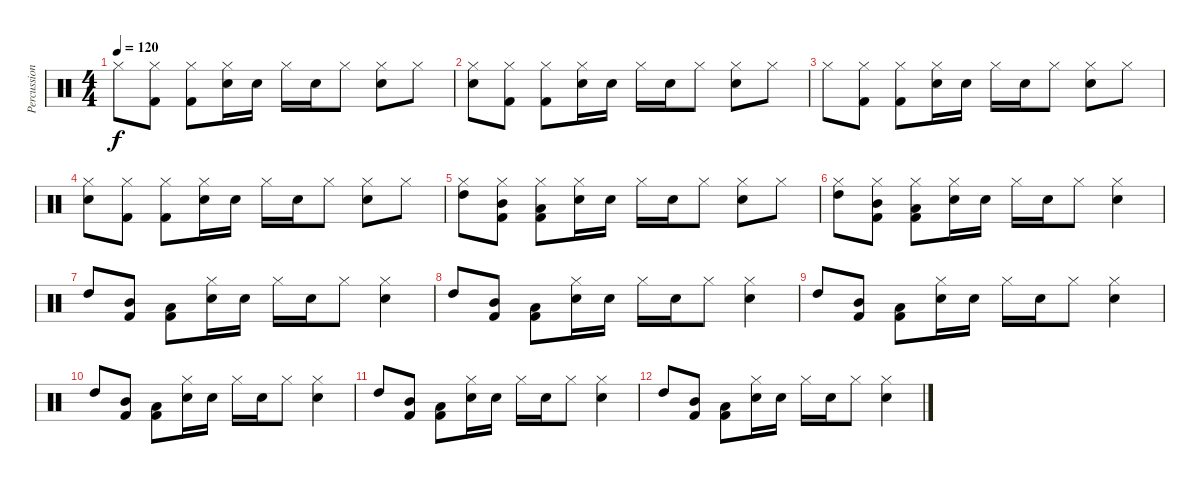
\track ("Percussion" "Percussion") {instrument percussion}
\staff {score}
\articulation defaults
\ts (4 4)
\tempo 120
\clef neutral
\ks c "Hi-Hat (closed)".8{dy f}
("Kick (hit) 2" "Hi-Hat (closed)").8 ("Kick (hit) 2" "Hi-Hat (closed)").8 ("Electric Snare (hit)" "Hi-Hat (closed)").16 "Electric Snare (hit)".16 "Hi-Hat (closed)".16 "Electric Snare (hit)".16 "Hi-Hat (closed)".8 ("Electric Snare (hit)" "Hi-Hat (closed)").8 "Hi-Hat (closed)".8 |
("Electric Snare (hit)" "Hi-Hat (closed)").8 ("Kick (hit) 2" "Hi-Hat (closed)").8 ("Kick (hit) 2" "Hi-Hat (closed)").8 ("Electric Snare (hit)" "Hi-Hat (closed)").16 "Electric Snare (hit)".16 "Hi-Hat (closed)".16 "Electric Snare (hit)".16 "Hi-Hat (closed)".8 ("Electric Snare (hit)" "Hi-Hat (closed)").8 "Hi-Hat (closed)".8 |
"Hi-Hat (closed)".8 ("Kick (hit) 2" "Hi-Hat (closed)").8 ("Kick (hit) 2" "Hi-Hat (closed)").8 ("Electric Snare (hit)" "Hi-Hat (closed)").16 "Electric Snare (hit)".16 "Hi-Hat (closed)".16 "Electric Snare (hit)".16 "Hi-Hat (closed)".8 ("Electric Snare (hit)" "Hi-Hat (closed)").8 "Hi-Hat (closed)".8 |
("Electric Snare (hit)" "Hi-Hat (closed)").8 ("Kick (hit) 2" "Hi-Hat (closed)").8 ("Kick (hit) 2" "Hi-Hat (closed)").8 ("Electric Snare (hit)" "Hi-Hat (closed)").16 "Electric Snare (hit)".16 "Hi-Hat (closed)".16 "Electric Snare (hit)".16 "Hi-Hat (closed)".8 ("Electric Snare (hit)" "Hi-Hat (closed)").8 "Hi-Hat (closed)".8 |
("High Tom (hit)" "Hi-Hat (closed)").8 ("Mid Tom (hit)" "Kick (hit) 2" "Hi-Hat (closed)").8 ("Low Tom (hit)" "Kick (hit) 2" "Hi-Hat (closed)").8 ("Electric Snare (hit)" "Hi-Hat (closed)").16 "Electric Snare (hit)".16 "Hi-Hat (closed)".16 "Electric Snare (hit)".16 "Hi-Hat (closed)".8 ("Electric Snare (hit)" "Hi-Hat (closed)").8 "Hi-Hat (closed)".8 |
("High Tom (hit)" "Hi-Hat (closed)").8 ("Mid Tom (hit)" "Kick (hit) 2" "Hi-Hat (closed)").8 ("Low Tom (hit)" "Kick (hit) 2" "Hi-Hat (closed)").8 ("Electric Snare (hit)" "Hi-Hat (closed)").16 "Electric Snare (hit)".16 "Hi-Hat (closed)".16 "Electric Snare (hit)".16 "Hi-Hat (closed)".8 ("Electric Snare (hit)" "Hi-Hat (closed)").4 |
"High Tom (hit)".8 ("Mid Tom (hit)" "Kick (hit) 2").8 ("Low Tom (hit)" "Kick (hit) 2").8 ("Electric Snare (hit)" "Hi-Hat (closed)").16 "Electric Snare (hit)".16 "Hi-Hat (closed)".16 "Electric Snare (hit)".16 "Hi-Hat (closed)".8 ("Electric Snare (hit)" "Hi-Hat (closed)").4 |
"High Tom (hit)".8 ("Mid Tom (hit)" "Kick (hit) 2").8 ("Low Tom (hit)" "Kick (hit) 2").8 ("Electric Snare (hit)" "Hi-Hat (closed)").16 "Electric Snare (hit)".16 "Hi-Hat (closed)".16 "Electric Snare (hit)".16 "Hi-Hat (closed)".8 ("Electric Snare (hit)" "Hi-Hat (closed)").4 |
"High Tom (hit)".8 ("Mid Tom (hit)" "Kick (hit) 2").8 ("Low Tom (hit)" "Kick (hit) 2").8 ("Electric Snare (hit)" "Hi-Hat (closed)").16 "Electric Snare (hit)".16 "Hi-Hat (closed)".16 "Electric Snare (hit)".16 "Hi-Hat (closed)".8 ("Electric Snare (hit)" "Hi-Hat (closed)").4 |
"High Tom (hit)".8 ("Mid Tom (hit)" "Kick (hit) 2").8 ("Low Tom (hit)" "Kick (hit) 2").8 ("Electric Snare (hit)" "Hi-Hat (closed)").16 "Electric Snare (hit)".16 "Hi-Hat (closed)".16 "Electric Snare (hit)".16 "Hi-Hat (closed)".8 ("Electric Snare (hit)" "Hi-Hat (closed)").4 |
"High Tom (hit)".8 ("Mid Tom (hit)" "Kick (hit) 2").8 ("Low Tom (hit)" "Kick (hit) 2").8 ("Electric Snare (hit)" "Hi-Hat (closed)").16 "Electric Snare (hit)".16 "Hi-Hat (closed)".16 "Electric Snare (hit)".16 "Hi-Hat (closed)".8 ("Electric Snare (hit)" "Hi-Hat (closed)").4 |
"High Tom (hit)".8 ("Mid Tom (hit)" "Kick (hit) 2").8 ("Low Tom (hit)" "Kick (hit) 2").8 ("Electric Snare (hit)" "Hi-Hat (closed)").16 "Electric Snare (hit)".16 "Hi-Hat (closed)".16 "Electric Snare (hit)".16 "Hi-Hat (closed)".8 ("Electric Snare (hit)" "Hi-Hat (closed)").4
